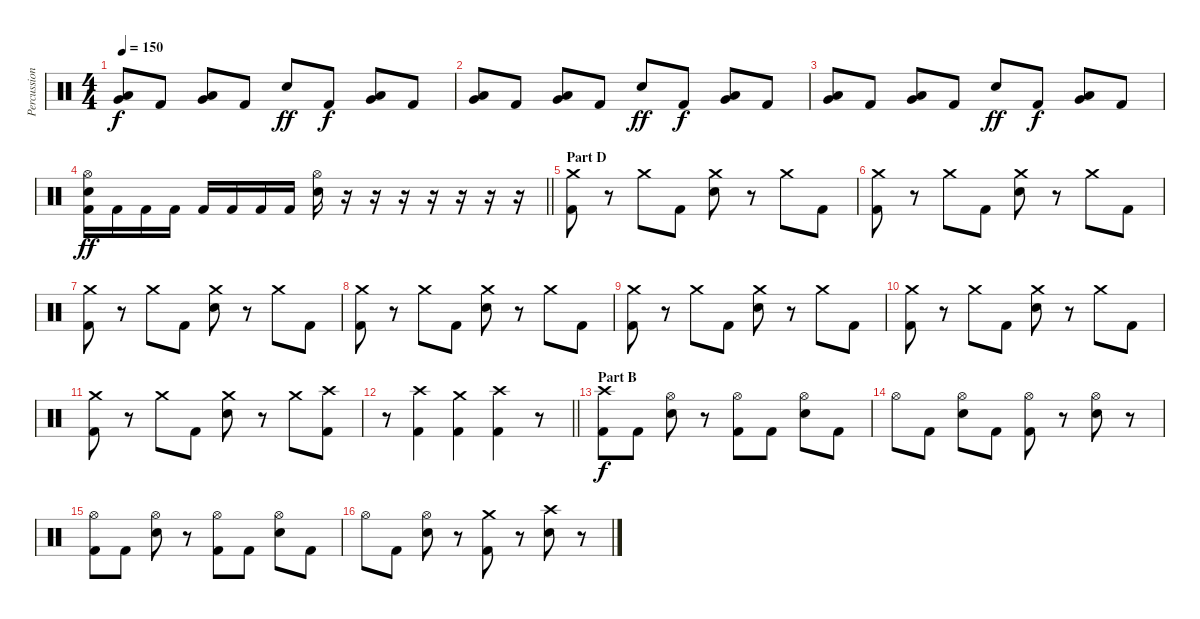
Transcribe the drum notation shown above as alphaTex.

\track ("Percussion" "Percussion") {instrument percussion}
\staff {score}
\articulation defaults
\ts (4 4)
\tempo 150
\clef neutral
\ks c
("Very Low Tom (hit)" "Low Floor Tom (hit)").8{dy f} "Kick (hit) 2".8 ("Very Low Tom (hit)" "Low Floor Tom (hit)").8 "Kick (hit) 2".8 "Electric Snare (hit)".8{dy ff} "Kick (hit) 2".8{dy f} ("Very Low Tom (hit)" "Low Floor Tom (hit)").8 "Kick (hit) 2".8 |
("Very Low Tom (hit)" "Low Floor Tom (hit)").8 "Kick (hit) 2".8 ("Very Low Tom (hit)" "Low Floor Tom (hit)").8 "Kick (hit) 2".8 "Electric Snare (hit)".8{dy ff} "Kick (hit) 2".8{dy f} ("Very Low Tom (hit)" "Low Floor Tom (hit)").8 "Kick (hit) 2".8 |
("Very Low Tom (hit)" "Low Floor Tom (hit)").8 "Kick (hit) 2".8 ("Very Low Tom (hit)" "Low Floor Tom (hit)").8 "Kick (hit) 2".8 "Electric Snare (hit)".8{dy ff} "Kick (hit) 2".8{dy f} ("Very Low Tom (hit)" "Low Floor Tom (hit)").8 "Kick (hit) 2".8 |
\barLineRight lightlight
("Hi-Hat (open)" "Electric Snare (hit)" "Kick (hit) 2").16{dy ff} "Kick (hit) 2".16 "Kick (hit) 2".16 "Kick (hit) 2".16 "Kick (hit) 2".16 "Kick (hit) 2".16 "Kick (hit) 2".16 "Kick (hit) 2".16 ("Hi-Hat (open)" "Electric Snare (hit)").16 r.16 r.16 r.16 r.16 r.16 r.16 r.16 |
\section ("" "Part D")
("Crash medium (hit)" "Kick (hit) 2").8 r.8 "Crash medium (hit)".8 "Kick (hit) 2".8 ("Crash medium (hit)" "Electric Snare (hit)").8 r.8 "Crash medium (hit)".8 "Kick (hit) 2".8 |
("Crash medium (hit)" "Kick (hit) 2").8 r.8 "Crash medium (hit)".8 "Kick (hit) 2".8 ("Crash medium (hit)" "Electric Snare (hit)").8 r.8 "Crash medium (hit)".8 "Kick (hit) 2".8 |
("Crash medium (hit)" "Kick (hit) 2").8 r.8 "Crash medium (hit)".8 "Kick (hit) 2".8 ("Crash medium (hit)" "Electric Snare (hit)").8 r.8 "Crash medium (hit)".8 "Kick (hit) 2".8 |
("Crash medium (hit)" "Kick (hit) 2").8 r.8 "Crash medium (hit)".8 "Kick (hit) 2".8 ("Crash medium (hit)" "Electric Snare (hit)").8 r.8 "Crash medium (hit)".8 "Kick (hit) 2".8 |
("Crash medium (hit)" "Kick (hit) 2").8 r.8 "Crash medium (hit)".8 "Kick (hit) 2".8 ("Crash medium (hit)" "Electric Snare (hit)").8 r.8 "Crash medium (hit)".8 "Kick (hit) 2".8 |
("Crash medium (hit)" "Kick (hit) 2").8 r.8 "Crash medium (hit)".8 "Kick (hit) 2".8 ("Crash medium (hit)" "Electric Snare (hit)").8 r.8 "Crash medium (hit)".8 "Kick (hit) 2".8 |
("Crash medium (hit)" "Kick (hit) 2").8 r.8 "Crash medium (hit)".8 "Kick (hit) 2".8 ("Crash medium (hit)" "Electric Snare (hit)").8 r.8 "Crash medium (hit)".8 ("Crash high (hit)" "Kick (hit) 2").8 |
\barLineRight lightlight
r.8 ("Crash high (hit)" "Kick (hit) 2").4 ("Crash medium (hit)" "Kick (hit) 2").4 ("Crash high (hit)" "Kick (hit) 2").4 r.8 |
\section ("" "Part B")
("Crash high (hit)" "Kick (hit) 2").8{dy f} "Kick (hit) 2".8 ("Hi-Hat (open)" "Electric Snare (hit)").8 r.8 ("Hi-Hat (open)" "Kick (hit) 2").8 "Kick (hit) 2".8 ("Hi-Hat (open)" "Electric Snare (hit)").8 "Kick (hit) 2".8 |
"Hi-Hat (open)".8 "Kick (hit) 2".8 ("Hi-Hat (open)" "Electric Snare (hit)").8 "Kick (hit) 2".8 ("Hi-Hat (open)" "Kick (hit) 2").8 r.8 ("Hi-Hat (open)" "Electric Snare (hit)").8 r.8 |
("Hi-Hat (open)" "Kick (hit) 2").8 "Kick (hit) 2".8 ("Hi-Hat (open)" "Electric Snare (hit)").8 r.8 ("Hi-Hat (open)" "Kick (hit) 2").8 "Kick (hit) 2".8 ("Hi-Hat (open)" "Electric Snare (hit)").8 "Kick (hit) 2".8 |
"Hi-Hat (open)".8 "Kick (hit) 2".8 ("Hi-Hat (open)" "Electric Snare (hit)").8 r.8 ("Crash medium (hit)" "Kick (hit) 2").8 r.8 ("Crash high (hit)" "Electric Snare (hit)").8 r.8
